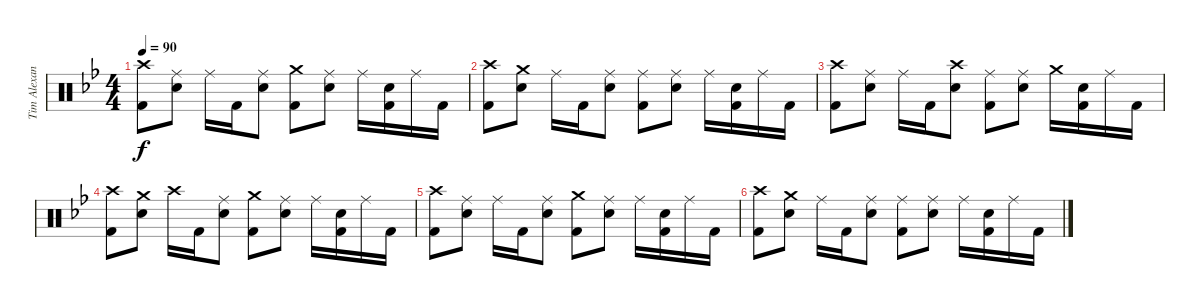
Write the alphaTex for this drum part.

\track ("Tim Alexander - Drums" "Tim Alexan") {instrument percussion}
\staff {score}
\articulation defaults
\ts (4 4)
\tempo 90
\clef neutral
\ks bb
("Crash high (hit)" "Kick (hit) 2").8{dy f} ("Ride (middle)" "Snare (hit) 2").8 "Ride (middle)".16 "Kick (hit) 2".16 ("Ride (middle)" "Snare (hit) 2").8 ("Crash medium (hit)" "Kick (hit) 2").8 ("Ride (middle)" "Snare (hit) 2").8 "Ride (middle)".16 ("Snare (hit) 2" "Kick (hit) 2").16 "Ride (middle)".16 "Kick (hit) 2".16 |
("Crash high (hit)" "Kick (hit) 2").8 ("Crash medium (hit)" "Snare (hit) 2").8 "Ride (middle)".16 "Kick (hit) 2".16 ("Ride (middle)" "Snare (hit) 2").8 ("Ride (middle)" "Kick (hit) 2").8 ("Ride (middle)" "Snare (hit) 2").8 "Ride (middle)".16 ("Snare (hit) 2" "Kick (hit) 2").16 "Ride (middle)".16 "Kick (hit) 2".16 |
("Crash high (hit)" "Kick (hit) 2").8{volume 0} ("Ride (middle)" "Snare (hit) 2").8 "Ride (middle)".16 "Kick (hit) 2".16 ("Crash high (hit)" "Snare (hit) 2").8 ("Ride (middle)" "Kick (hit) 2").8 ("Ride (middle)" "Snare (hit) 2").8 "Crash medium (hit)".16 ("Snare (hit) 2" "Kick (hit) 2").16 "Ride (middle)".16 "Kick (hit) 2".16 |
("Crash high (hit)" "Kick (hit) 2").8 ("Crash medium (hit)" "Snare (hit) 2").8 "Crash high (hit)".16 "Kick (hit) 2".16 ("Ride (middle)" "Snare (hit) 2").8 ("Crash medium (hit)" "Kick (hit) 2").8 ("Ride (middle)" "Snare (hit) 2").8 "Ride (middle)".16 ("Snare (hit) 2" "Kick (hit) 2").16 "Ride (middle)".16 "Kick (hit) 2".16 |
("Crash high (hit)" "Kick (hit) 2").8 ("Ride (middle)" "Snare (hit) 2").8 "Ride (middle)".16 "Kick (hit) 2".16 ("Ride (middle)" "Snare (hit) 2").8 ("Crash medium (hit)" "Kick (hit) 2").8 ("Ride (middle)" "Snare (hit) 2").8 "Ride (middle)".16 ("Snare (hit) 2" "Kick (hit) 2").16 "Ride (middle)".16 "Kick (hit) 2".16 |
("Crash high (hit)" "Kick (hit) 2").8 ("Crash medium (hit)" "Snare (hit) 2").8 "Ride (middle)".16 "Kick (hit) 2".16 ("Ride (middle)" "Snare (hit) 2").8 ("Ride (middle)" "Kick (hit) 2").8 ("Ride (middle)" "Snare (hit) 2").8 "Ride (middle)".16 ("Snare (hit) 2" "Kick (hit) 2").16 "Ride (middle)".16 "Kick (hit) 2".16
